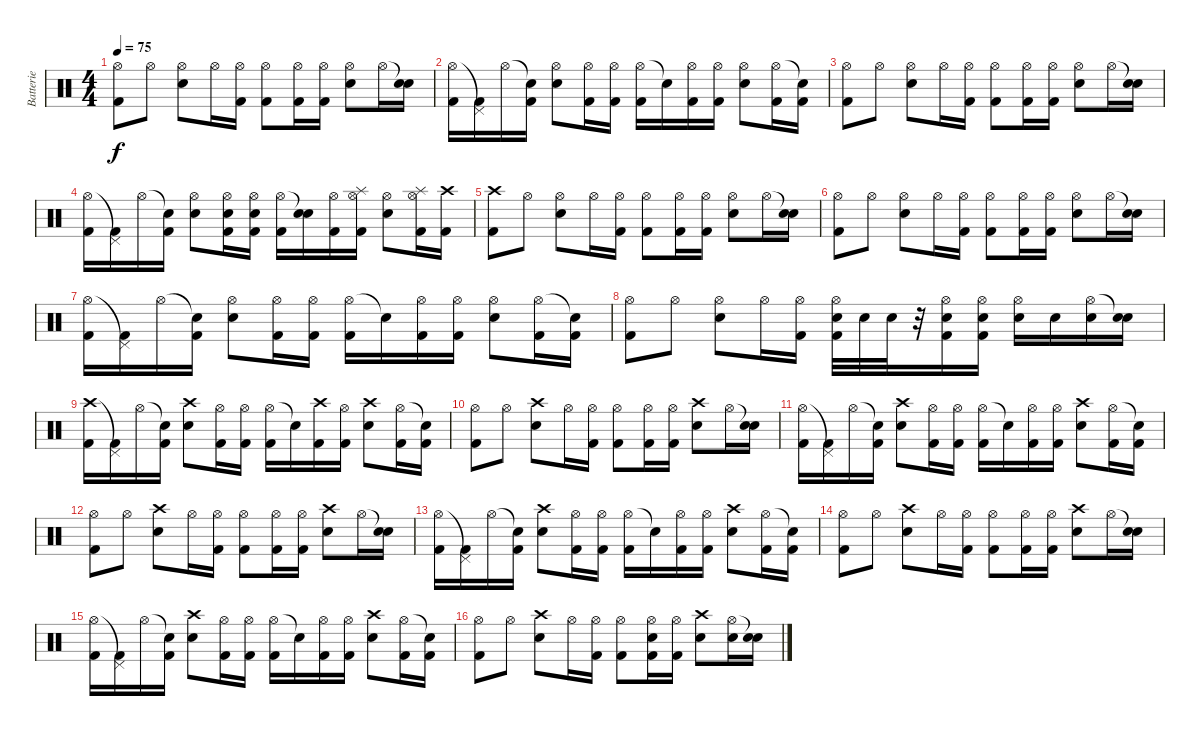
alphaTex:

\track ("Batterie" "Batterie") {instrument percussion}
\staff {score}
\articulation defaults
\ts (4 4)
\tempo 75
\clef neutral
\ks c
("Hi-Hat (open)" "Kick (hit) 2").8{dy f} "Hi-Hat (open)".8 ("Hi-Hat (open)" "Electric Snare (hit)").8 "Hi-Hat (open)".16 ("Hi-Hat (open)" "Kick (hit) 2").16 ("Hi-Hat (open)" "Kick (hit) 2").8 ("Hi-Hat (open)" "Kick (hit) 2").16 ("Hi-Hat (open)" "Kick (hit) 2").16 ("Hi-Hat (open)" "Electric Snare (hit)").8 "Hi-Hat (open)".16 ("Snare (hit)"{t} "Electric Snare (hit)").16 |
("Hi-Hat (open)" "Kick (hit) 2").16 ("Pedal Hi-Hat (hit)"{t} "Kick (hit) 2").16 "Hi-Hat (open)".16 ("Snare (hit)"{t} "Kick (hit) 2").16 ("Hi-Hat (open)" "Electric Snare (hit)").8 ("Hi-Hat (open)" "Kick (hit) 2").16 ("Hi-Hat (open)" "Kick (hit) 2").16 ("Hi-Hat (open)" "Kick (hit) 2").16 "Snare (hit)"{t}.16 ("Hi-Hat (open)" "Kick (hit) 2").16 ("Hi-Hat (open)" "Kick (hit) 2").16 ("Hi-Hat (open)" "Electric Snare (hit)").8 ("Hi-Hat (open)" "Kick (hit) 2").16 ("Snare (hit)"{t} "Kick (hit) 2").16 |
("Hi-Hat (open)" "Kick (hit) 2").8 "Hi-Hat (open)".8 ("Hi-Hat (open)" "Electric Snare (hit)").8 "Hi-Hat (open)".16 ("Hi-Hat (open)" "Kick (hit) 2").16 ("Hi-Hat (open)" "Kick (hit) 2").8 ("Hi-Hat (open)" "Kick (hit) 2").16 ("Hi-Hat (open)" "Kick (hit) 2").16 ("Hi-Hat (open)" "Electric Snare (hit)").8 "Hi-Hat (open)".16 ("Snare (hit)"{t} "Electric Snare (hit)").16 |
("Hi-Hat (open)" "Kick (hit) 2").16 ("Pedal Hi-Hat (hit)"{t} "Kick (hit) 2").16 "Hi-Hat (open)".16 ("Snare (hit)"{t} "Kick (hit) 2").16 ("Hi-Hat (open)" "Electric Snare (hit)").8 ("Hi-Hat (open)" "Electric Snare (hit)" "Kick (hit) 2").16 ("Hi-Hat (open)" "Electric Snare (hit)" "Kick (hit) 2").16 ("Hi-Hat (open)" "Kick (hit) 2").16 ("Snare (hit)"{t} "Snare (hit) 2").16 ("Hi-Hat (open)" "Kick (hit) 2").16 ("Hi-Hat (open)" "Splash (hit)" "Kick (hit) 2").16 ("Hi-Hat (open)" "Electric Snare (hit)").8 ("Hi-Hat (open)" "Splash (hit)" "Kick (hit) 2").16 ("Crash high (hit)" "Kick (hit) 2").16 |
("Crash high (hit)" "Kick (hit) 2").8 "Hi-Hat (open)".8 ("Hi-Hat (open)" "Electric Snare (hit)").8 "Hi-Hat (open)".16 ("Hi-Hat (open)" "Kick (hit) 2").16 ("Hi-Hat (open)" "Kick (hit) 2").8 ("Hi-Hat (open)" "Kick (hit) 2").16 ("Hi-Hat (open)" "Kick (hit) 2").16 ("Hi-Hat (open)" "Electric Snare (hit)").8 "Hi-Hat (open)".16 ("Snare (hit)"{t} "Electric Snare (hit)").16 |
("Hi-Hat (open)" "Kick (hit) 2").8 "Hi-Hat (open)".8 ("Hi-Hat (open)" "Electric Snare (hit)").8 "Hi-Hat (open)".16 ("Hi-Hat (open)" "Kick (hit) 2").16 ("Hi-Hat (open)" "Kick (hit) 2").8 ("Hi-Hat (open)" "Kick (hit) 2").16 ("Hi-Hat (open)" "Kick (hit) 2").16 ("Hi-Hat (open)" "Electric Snare (hit)").8 "Hi-Hat (open)".16 ("Snare (hit)"{t} "Electric Snare (hit)").16 |
("Hi-Hat (open)" "Kick (hit) 2").16 ("Pedal Hi-Hat (hit)"{t} "Kick (hit) 2").16 "Hi-Hat (open)".16 ("Snare (hit)"{t} "Kick (hit) 2").16 ("Hi-Hat (open)" "Electric Snare (hit)").8 ("Hi-Hat (open)" "Kick (hit) 2").16 ("Hi-Hat (open)" "Kick (hit) 2").16 ("Hi-Hat (open)" "Kick (hit) 2").16 "Snare (hit)"{t}.16 ("Hi-Hat (open)" "Kick (hit) 2").16 ("Hi-Hat (open)" "Kick (hit) 2").16 ("Hi-Hat (open)" "Electric Snare (hit)").8 ("Hi-Hat (open)" "Kick (hit) 2").16 ("Snare (hit)"{t} "Kick (hit) 2").16 |
("Hi-Hat (open)" "Kick (hit) 2").8 "Hi-Hat (open)".8 ("Hi-Hat (open)" "Electric Snare (hit)").8 "Hi-Hat (open)".16 ("Hi-Hat (open)" "Kick (hit) 2").16 ("Hi-Hat (open)" "Snare (hit) 2" "Kick (hit) 2").32 "Snare (hit) 2".32 "Snare (hit) 2".32 r.32 ("Hi-Hat (open)" "Electric Snare (hit)" "Kick (hit) 2").16 ("Hi-Hat (open)" "Snare (hit) 2" "Kick (hit) 2").16 ("Hi-Hat (open)" "Electric Snare (hit)").16 "Electric Snare (hit)".16 ("Hi-Hat (open)" "Electric Snare (hit)").16 ("Snare (hit)"{t} "Electric Snare (hit)").16 |
("Crash high (hit)" "Kick (hit) 2").16 ("Pedal Hi-Hat (hit)"{t} "Kick (hit) 2").16 "Hi-Hat (open)".16 ("Snare (hit)"{t} "Kick (hit) 2").16 ("Crash high (hit)" "Electric Snare (hit)").8 ("Hi-Hat (open)" "Kick (hit) 2").16 ("Hi-Hat (open)" "Kick (hit) 2").16 ("Hi-Hat (open)" "Kick (hit) 2").16 "Snare (hit)"{t}.16 ("Crash high (hit)" "Kick (hit) 2").16 ("Hi-Hat (open)" "Kick (hit) 2").16 ("Crash high (hit)" "Electric Snare (hit)").8 ("Hi-Hat (open)" "Kick (hit) 2").16 ("Snare (hit)"{t} "Kick (hit) 2").16 |
("Hi-Hat (open)" "Kick (hit) 2").8 "Hi-Hat (open)".8 ("Crash high (hit)" "Electric Snare (hit)").8 "Hi-Hat (open)".16 ("Hi-Hat (open)" "Kick (hit) 2").16 ("Hi-Hat (open)" "Kick (hit) 2").8 ("Hi-Hat (open)" "Kick (hit) 2").16 ("Hi-Hat (open)" "Kick (hit) 2").16 ("Crash high (hit)" "Electric Snare (hit)").8 "Hi-Hat (open)".16 ("Snare (hit)"{t} "Electric Snare (hit)").16 |
("Hi-Hat (open)" "Kick (hit) 2").16 ("Pedal Hi-Hat (hit)"{t} "Kick (hit) 2").16 "Hi-Hat (open)".16 ("Snare (hit)"{t} "Kick (hit) 2").16 ("Crash high (hit)" "Electric Snare (hit)").8 ("Hi-Hat (open)" "Kick (hit) 2").16 ("Hi-Hat (open)" "Kick (hit) 2").16 ("Hi-Hat (open)" "Kick (hit) 2").16 "Snare (hit)"{t}.16 ("Hi-Hat (open)" "Kick (hit) 2").16 ("Hi-Hat (open)" "Kick (hit) 2").16 ("Crash high (hit)" "Electric Snare (hit)").8 ("Hi-Hat (open)" "Kick (hit) 2").16 ("Snare (hit)"{t} "Kick (hit) 2").16 |
("Hi-Hat (open)" "Kick (hit) 2").8 "Hi-Hat (open)".8 ("Crash high (hit)" "Electric Snare (hit)").8 "Hi-Hat (open)".16 ("Hi-Hat (open)" "Kick (hit) 2").16 ("Hi-Hat (open)" "Kick (hit) 2").8 ("Hi-Hat (open)" "Kick (hit) 2").16 ("Hi-Hat (open)" "Kick (hit) 2").16 ("Crash high (hit)" "Electric Snare (hit)").8 "Hi-Hat (open)".16 ("Snare (hit)"{t} "Electric Snare (hit)").16 |
("Hi-Hat (open)" "Kick (hit) 2").16 ("Pedal Hi-Hat (hit)"{t} "Kick (hit) 2").16 "Hi-Hat (open)".16 ("Snare (hit)"{t} "Kick (hit) 2").16 ("Crash high (hit)" "Electric Snare (hit)").8 ("Hi-Hat (open)" "Kick (hit) 2").16 ("Hi-Hat (open)" "Kick (hit) 2").16 ("Hi-Hat (open)" "Kick (hit) 2").16 "Snare (hit)"{t}.16 ("Hi-Hat (open)" "Kick (hit) 2").16 ("Hi-Hat (open)" "Kick (hit) 2").16 ("Crash high (hit)" "Electric Snare (hit)").8 ("Hi-Hat (open)" "Kick (hit) 2").16 ("Snare (hit)"{t} "Kick (hit) 2").16 |
("Hi-Hat (open)" "Kick (hit) 2").8 "Hi-Hat (open)".8 ("Crash high (hit)" "Electric Snare (hit)").8 "Hi-Hat (open)".16 ("Hi-Hat (open)" "Kick (hit) 2").16 ("Hi-Hat (open)" "Kick (hit) 2").8 ("Hi-Hat (open)" "Kick (hit) 2").16 ("Hi-Hat (open)" "Kick (hit) 2").16 ("Crash high (hit)" "Electric Snare (hit)").8 "Hi-Hat (open)".16 ("Snare (hit)"{t} "Electric Snare (hit)").16 |
("Hi-Hat (open)" "Kick (hit) 2").16 ("Pedal Hi-Hat (hit)"{t} "Kick (hit) 2").16 "Hi-Hat (open)".16 ("Snare (hit)"{t} "Kick (hit) 2").16 ("Crash high (hit)" "Electric Snare (hit)").8 ("Hi-Hat (open)" "Kick (hit) 2").16 ("Hi-Hat (open)" "Kick (hit) 2").16 ("Hi-Hat (open)" "Kick (hit) 2").16 "Snare (hit)"{t}.16 ("Hi-Hat (open)" "Kick (hit) 2").16 ("Hi-Hat (open)" "Kick (hit) 2").16 ("Crash high (hit)" "Electric Snare (hit)").8 ("Hi-Hat (open)" "Kick (hit) 2").16 ("Snare (hit)"{t} "Kick (hit) 2").16 |
("Hi-Hat (open)" "Kick (hit) 2").8 "Hi-Hat (open)".8 ("Crash high (hit)" "Electric Snare (hit)").8 "Hi-Hat (open)".16 ("Hi-Hat (open)" "Kick (hit) 2").16 ("Hi-Hat (open)" "Kick (hit) 2").8 ("Hi-Hat (open)" "Electric Snare (hit)" "Kick (hit) 2").16 ("Hi-Hat (open)" "Kick (hit) 2").16 ("Crash high (hit)" "Electric Snare (hit)").8 ("Hi-Hat (open)" "Metronome (bell)").16 ("Snare (hit)"{t} "Metronome (bell)").16
